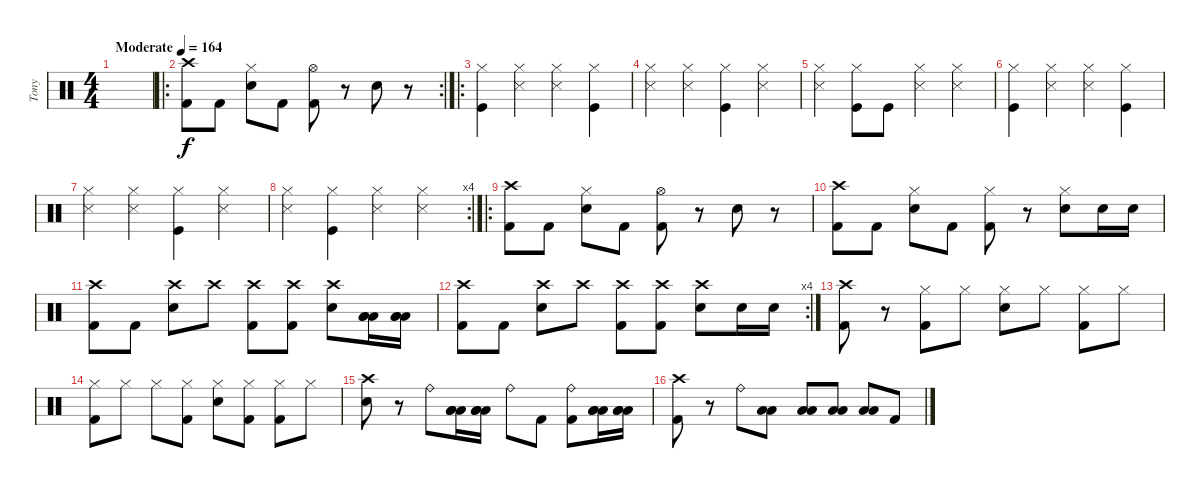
\track ("Tony" "Tony") {instrument percussion}
\staff {score}
\articulation defaults
\ts (4 4)
\tempo (164 "Moderate")
\clef neutral
\ks c
|
\ro
\rc 2
("Kick (hit) 2" "Crash high (hit)").8 "Kick (hit) 2".8 ("Snare (hit) 2" "Hi-Hat (closed)").8 "Kick (hit) 2".8 ("Kick (hit) 2" "Hi-Hat (open)").8 r.8 "Snare (hit) 2".8 r.8 |
\ro
("Hi-Hat (closed)" "Kick (hit)").4 ("Hi-Hat (closed)" "Snare (side stick) 3").4 ("Hi-Hat (closed)" "Snare (side stick) 3").4 ("Hi-Hat (closed)" "Kick (hit)").4 |
("Hi-Hat (closed)" "Snare (side stick) 3").4 ("Hi-Hat (closed)" "Snare (side stick) 3").4 ("Hi-Hat (closed)" "Kick (hit)").4 ("Hi-Hat (closed)" "Snare (side stick) 3").4 |
("Hi-Hat (closed)" "Snare (side stick) 3").4 ("Hi-Hat (closed)" "Kick (hit)").8 "Kick (hit)".8 ("Hi-Hat (closed)" "Snare (side stick) 3").4 ("Hi-Hat (closed)" "Snare (side stick) 3").4 |
("Hi-Hat (closed)" "Kick (hit)").4 ("Hi-Hat (closed)" "Snare (side stick) 3").4 ("Hi-Hat (closed)" "Snare (side stick) 3").4 ("Hi-Hat (closed)" "Kick (hit)").4 |
("Hi-Hat (closed)" "Snare (side stick) 3").4 ("Hi-Hat (closed)" "Snare (side stick) 3").4 ("Hi-Hat (closed)" "Kick (hit)").4 ("Hi-Hat (closed)" "Snare (side stick) 3").4 |
\rc 4
("Hi-Hat (closed)" "Snare (side stick) 3").4 ("Hi-Hat (closed)" "Kick (hit)").4 ("Hi-Hat (closed)" "Snare (side stick) 3").4 ("Hi-Hat (closed)" "Snare (side stick) 3").4 |
\ro
("Kick (hit) 2" "Crash high (hit)").8 "Kick (hit) 2".8 ("Snare (hit) 2" "Hi-Hat (closed)").8 "Kick (hit) 2".8 ("Kick (hit) 2" "Hi-Hat (open)").8 r.8 "Snare (hit) 2".8 r.8 |
("Kick (hit) 2" "Crash high (hit)").8 "Kick (hit) 2".8 ("Snare (hit) 2" "Hi-Hat (closed)").8 "Kick (hit) 2".8 ("Kick (hit) 2" "Hi-Hat (closed)").8 r.8 ("Snare (hit) 2" "Hi-Hat (closed)").8 "Snare (hit) 2".16 "Snare (hit) 2".16 |
("Kick (hit) 2" "Crash high (hit)").8 "Kick (hit) 2".8 ("Crash high (hit)" "Snare (hit) 2").8 "Crash high (hit)".8 ("Kick (hit) 2" "Crash high (hit)").8 ("Kick (hit) 2" "Crash high (hit)").8 ("Crash high (hit)" "Snare (hit) 2").8 ("Low Floor Tom (hit)" "Low Floor Tom (hit)" "Low Floor Tom (hit)").16 ("Low Floor Tom (hit)" "Low Floor Tom (hit)" "Low Floor Tom (hit)").16 |
\rc 4
("Kick (hit) 2" "Crash high (hit)").8 "Kick (hit) 2".8 ("Crash high (hit)" "Snare (hit) 2").8 "Crash high (hit)".8 ("Kick (hit) 2" "Crash high (hit)").8 ("Kick (hit) 2" "Crash high (hit)").8 ("Crash high (hit)" "Snare (hit) 2").8 "Snare (hit) 2".16 "Snare (hit) 2".16 |
("Kick (hit) 2" "Crash high (hit)").8 r.8 ("Kick (hit) 2" "Hi-Hat (closed)").8 "Hi-Hat (closed)".8 ("Snare (hit) 2" "Hi-Hat (closed)").8 "Hi-Hat (closed)".8 ("Kick (hit) 2" "Hi-Hat (closed)").8 "Hi-Hat (closed)".8 |
("Kick (hit) 2" "Hi-Hat (closed)").8 "Hi-Hat (closed)".8 "Hi-Hat (closed)".8 ("Kick (hit) 2" "Hi-Hat (closed)").8 ("Snare (hit) 2" "Hi-Hat (closed)").8 ("Kick (hit) 2" "Hi-Hat (closed)").8 ("Kick (hit) 2" "Hi-Hat (closed)").8 "Hi-Hat (closed)".8 |
("Crash high (hit)" "Snare (hit) 2").8 r.8 "Ride (bell)".8 ("Low Tom (hit)" "Low Tom (hit)" "Low Tom (hit)").16 ("Low Tom (hit)" "Low Tom (hit)" "Low Tom (hit)").16 "Ride (bell)".8 "Kick (hit) 2".8 ("Kick (hit) 2" "Ride (bell)").8 ("Low Floor Tom (hit)" "Low Floor Tom (hit)" "Low Floor Tom (hit)").16 ("Low Floor Tom (hit)" "Low Floor Tom (hit)" "Low Floor Tom (hit)").16 |
("Kick (hit) 2" "Crash high (hit)").8 r.8 "Ride (bell)".8 ("Low Tom (hit)" "Low Tom (hit)").8 ("Low Tom (hit)" "Low Tom (hit)").8 ("Low Floor Tom (hit)" "Low Floor Tom (hit)").8 ("Low Floor Tom (hit)" "Low Floor Tom (hit)").8 "Kick (hit) 2".8
